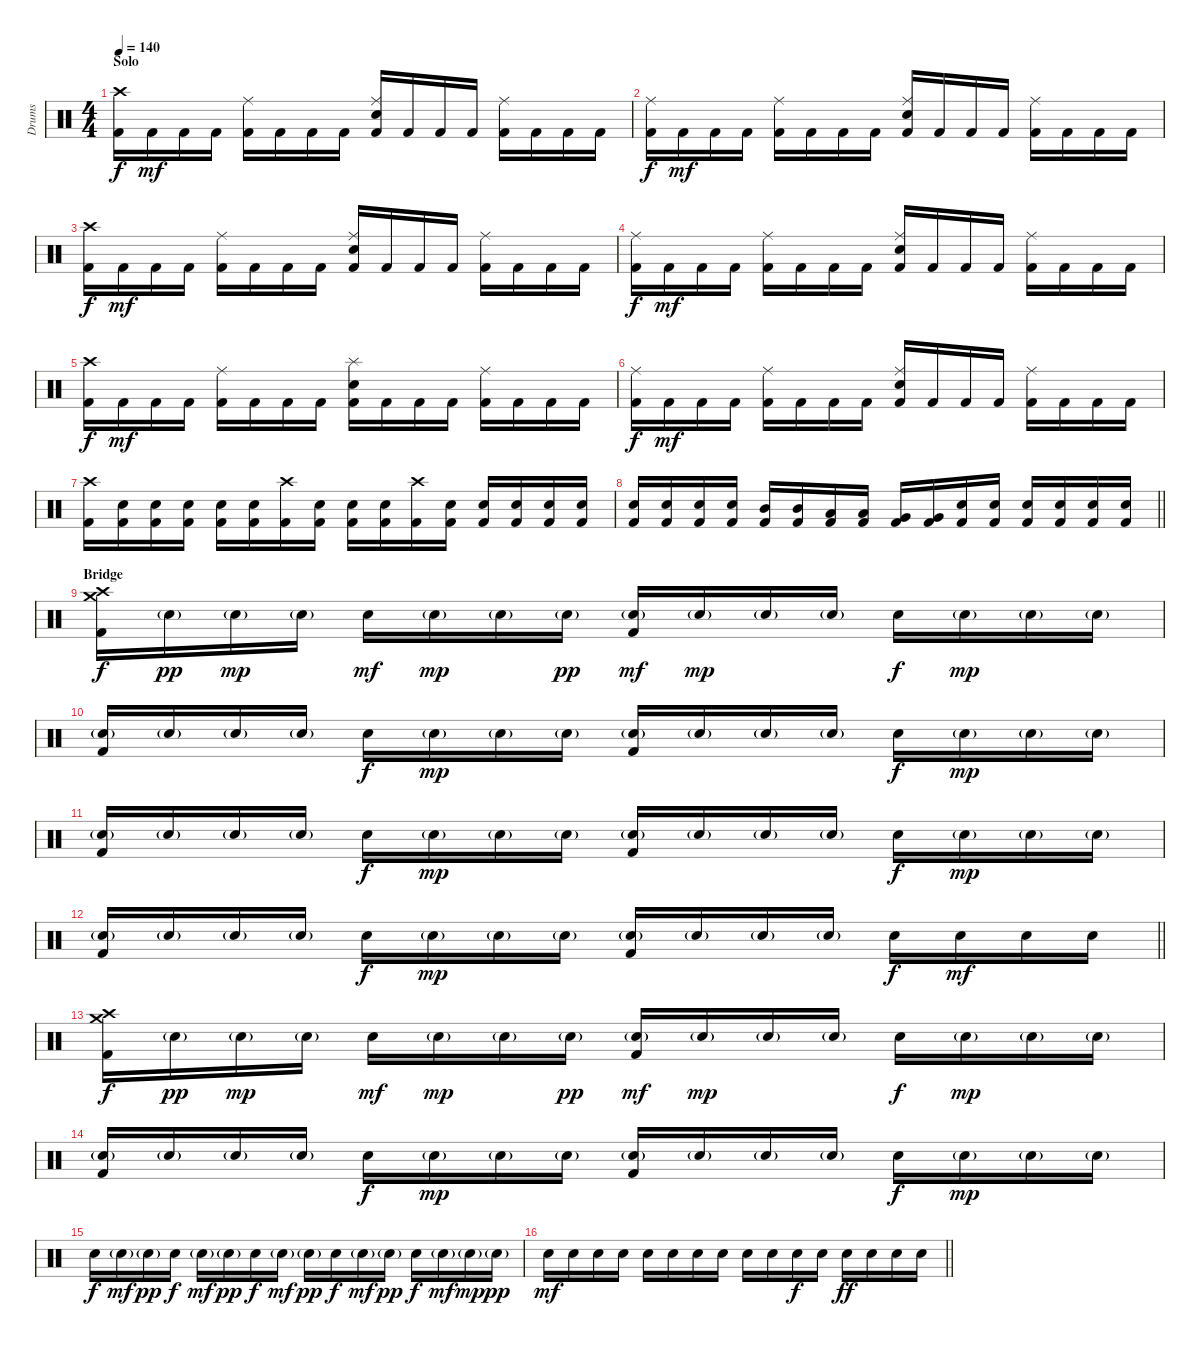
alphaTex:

\track ("Drums" "Drums") {instrument percussion}
\staff {score}
\articulation defaults
\ts (4 4)
\section ("" "Solo")
\tempo 140
\clef neutral
\ks c
("Crash high (hit)" "Kick (hit) 2").16{dy f} "Kick (hit) 2".16{dy mf} "Kick (hit) 2".16 "Kick (hit) 2".16 ("Ride (middle)" "Kick (hit) 2").16 "Kick (hit) 2".16 "Kick (hit) 2".16 "Kick (hit) 2".16 ("Ride (middle)" "Electric Snare (hit)" "Kick (hit) 2").16 "Kick (hit) 2".16 "Kick (hit) 2".16 "Kick (hit) 2".16 ("Ride (middle)" "Kick (hit) 2").16 "Kick (hit) 2".16 "Kick (hit) 2".16 "Kick (hit) 2".16 |
("Ride (middle)" "Kick (hit) 2").16{dy f} "Kick (hit) 2".16{dy mf} "Kick (hit) 2".16 "Kick (hit) 2".16 ("Ride (middle)" "Kick (hit) 2").16 "Kick (hit) 2".16 "Kick (hit) 2".16 "Kick (hit) 2".16 ("Ride (middle)" "Electric Snare (hit)" "Kick (hit) 2").16 "Kick (hit) 2".16 "Kick (hit) 2".16 "Kick (hit) 2".16 ("Ride (middle)" "Kick (hit) 2").16 "Kick (hit) 2".16 "Kick (hit) 2".16 "Kick (hit) 2".16 |
("Crash high (hit)" "Kick (hit) 2").16{dy f} "Kick (hit) 2".16{dy mf} "Kick (hit) 2".16 "Kick (hit) 2".16 ("Ride (middle)" "Kick (hit) 2").16 "Kick (hit) 2".16 "Kick (hit) 2".16 "Kick (hit) 2".16 ("Ride (middle)" "Electric Snare (hit)" "Kick (hit) 2").16 "Kick (hit) 2".16 "Kick (hit) 2".16 "Kick (hit) 2".16 ("Ride (middle)" "Kick (hit) 2").16 "Kick (hit) 2".16 "Kick (hit) 2".16 "Kick (hit) 2".16 |
("Ride (middle)" "Kick (hit) 2").16{dy f} "Kick (hit) 2".16{dy mf} "Kick (hit) 2".16 "Kick (hit) 2".16 ("Ride (middle)" "Kick (hit) 2").16 "Kick (hit) 2".16 "Kick (hit) 2".16 "Kick (hit) 2".16 ("Ride (middle)" "Electric Snare (hit)" "Kick (hit) 2").16 "Kick (hit) 2".16 "Kick (hit) 2".16 "Kick (hit) 2".16 ("Ride (middle)" "Kick (hit) 2").16 "Kick (hit) 2".16 "Kick (hit) 2".16 "Kick (hit) 2".16 |
("Crash high (hit)" "Kick (hit) 2").16{dy f} "Kick (hit) 2".16{dy mf} "Kick (hit) 2".16 "Kick (hit) 2".16 ("Ride (middle)" "Kick (hit) 2").16 "Kick (hit) 2".16 "Kick (hit) 2".16 "Kick (hit) 2".16 ("Splash (hit)" "Electric Snare (hit)" "Kick (hit) 2").16 "Kick (hit) 2".16 "Kick (hit) 2".16 "Kick (hit) 2".16 ("Ride (middle)" "Kick (hit) 2").16 "Kick (hit) 2".16 "Kick (hit) 2".16 "Kick (hit) 2".16 |
("Ride (middle)" "Kick (hit) 2").16{dy f} "Kick (hit) 2".16{dy mf} "Kick (hit) 2".16 "Kick (hit) 2".16 ("Ride (middle)" "Kick (hit) 2").16 "Kick (hit) 2".16 "Kick (hit) 2".16 "Kick (hit) 2".16 ("Ride (middle)" "Electric Snare (hit)" "Kick (hit) 2").16 "Kick (hit) 2".16 "Kick (hit) 2".16 "Kick (hit) 2".16 ("Ride (middle)" "Kick (hit) 2").16 "Kick (hit) 2".16 "Kick (hit) 2".16 "Kick (hit) 2".16 |
("Crash high (hit)" "Kick (hit) 2").16 ("Electric Snare (hit)" "Kick (hit) 2").16 ("Electric Snare (hit)" "Kick (hit) 2").16 ("Electric Snare (hit)" "Kick (hit) 2").16 ("Electric Snare (hit)" "Kick (hit) 2").16 ("Electric Snare (hit)" "Kick (hit) 2").16 ("Crash high (hit)" "Kick (hit) 2").16 ("Electric Snare (hit)" "Kick (hit) 2").16 ("Electric Snare (hit)" "Kick (hit) 2").16 ("Electric Snare (hit)" "Kick (hit) 2").16 ("Crash high (hit)" "Kick (hit) 2").16 ("Electric Snare (hit)" "Kick (hit) 2").16 ("Electric Snare (hit)" "Kick (hit) 2").16 ("Electric Snare (hit)" "Kick (hit) 2").16 ("Electric Snare (hit)" "Kick (hit) 2").16 ("Electric Snare (hit)" "Kick (hit) 2").16 |
\barLineRight lightlight
("Electric Snare (hit)" "Kick (hit) 2").16 ("Electric Snare (hit)" "Kick (hit) 2").16 ("Electric Snare (hit)" "Kick (hit) 2").16 ("Electric Snare (hit)" "Kick (hit) 2").16 ("Mid Tom (hit)" "Kick (hit) 2").16 ("Mid Tom (hit)" "Kick (hit) 2").16 ("Low Tom (hit)" "Kick (hit) 2").16 ("Low Tom (hit)" "Kick (hit) 2").16 ("Very Low Tom (hit)" "Kick (hit) 2").16 ("Very Low Tom (hit)" "Kick (hit) 2").16 ("Electric Snare (hit)" "Kick (hit) 2").16 ("Electric Snare (hit)" "Kick (hit) 2").16 ("Electric Snare (hit)" "Kick (hit) 2").16 ("Electric Snare (hit)" "Kick (hit) 2").16 ("Electric Snare (hit)" "Kick (hit) 2").16 ("Electric Snare (hit)" "Kick (hit) 2").16 |
\section ("" "Bridge")
("Crash high (hit)" "Crash medium (hit)" "Kick (hit) 2").16{dy f} "Electric Snare (hit)"{g}.16{dy pp} "Electric Snare (hit)"{g}.16{dy mp} "Electric Snare (hit)"{g}.16 "Electric Snare (hit)".16{dy mf} "Electric Snare (hit)"{g}.16{dy mp} "Electric Snare (hit)"{g}.16 "Electric Snare (hit)"{g}.16{dy pp} ("Electric Snare (hit)"{g} "Kick (hit) 2").16{dy mf} "Electric Snare (hit)"{g}.16{dy mp} "Electric Snare (hit)"{g}.16 "Electric Snare (hit)"{g}.16 "Electric Snare (hit)".16{dy f} "Electric Snare (hit)"{g}.16{dy mp} "Electric Snare (hit)"{g}.16 "Electric Snare (hit)"{g}.16 |
("Electric Snare (hit)"{g} "Kick (hit) 2").16 "Electric Snare (hit)"{g}.16 "Electric Snare (hit)"{g}.16 "Electric Snare (hit)"{g}.16 "Electric Snare (hit)".16{dy f} "Electric Snare (hit)"{g}.16{dy mp} "Electric Snare (hit)"{g}.16 "Electric Snare (hit)"{g}.16 ("Electric Snare (hit)"{g} "Kick (hit) 2").16 "Electric Snare (hit)"{g}.16 "Electric Snare (hit)"{g}.16 "Electric Snare (hit)"{g}.16 "Electric Snare (hit)".16{dy f} "Electric Snare (hit)"{g}.16{dy mp} "Electric Snare (hit)"{g}.16 "Electric Snare (hit)"{g}.16 |
("Electric Snare (hit)"{g} "Kick (hit) 2").16 "Electric Snare (hit)"{g}.16 "Electric Snare (hit)"{g}.16 "Electric Snare (hit)"{g}.16 "Electric Snare (hit)".16{dy f} "Electric Snare (hit)"{g}.16{dy mp} "Electric Snare (hit)"{g}.16 "Electric Snare (hit)"{g}.16 ("Electric Snare (hit)"{g} "Kick (hit) 2").16 "Electric Snare (hit)"{g}.16 "Electric Snare (hit)"{g}.16 "Electric Snare (hit)"{g}.16 "Electric Snare (hit)".16{dy f} "Electric Snare (hit)"{g}.16{dy mp} "Electric Snare (hit)"{g}.16 "Electric Snare (hit)"{g}.16 |
\barLineRight lightlight
("Electric Snare (hit)"{g} "Kick (hit) 2").16 "Electric Snare (hit)"{g}.16 "Electric Snare (hit)"{g}.16 "Electric Snare (hit)"{g}.16 "Electric Snare (hit)".16{dy f} "Electric Snare (hit)"{g}.16{dy mp} "Electric Snare (hit)"{g}.16 "Electric Snare (hit)"{g}.16 ("Electric Snare (hit)"{g} "Kick (hit) 2").16 "Electric Snare (hit)"{g}.16 "Electric Snare (hit)"{g}.16 "Electric Snare (hit)"{g}.16 "Electric Snare (hit)".16{dy f} "Electric Snare (hit)".16{dy mf} "Electric Snare (hit)".16 "Electric Snare (hit)".16 |
("Crash high (hit)" "Crash medium (hit)" "Kick (hit) 2").16{dy f} "Electric Snare (hit)"{g}.16{dy pp} "Electric Snare (hit)"{g}.16{dy mp} "Electric Snare (hit)"{g}.16 "Electric Snare (hit)".16{dy mf} "Electric Snare (hit)"{g}.16{dy mp} "Electric Snare (hit)"{g}.16 "Electric Snare (hit)"{g}.16{dy pp} ("Electric Snare (hit)"{g} "Kick (hit) 2").16{dy mf} "Electric Snare (hit)"{g}.16{dy mp} "Electric Snare (hit)"{g}.16 "Electric Snare (hit)"{g}.16 "Electric Snare (hit)".16{dy f} "Electric Snare (hit)"{g}.16{dy mp} "Electric Snare (hit)"{g}.16 "Electric Snare (hit)"{g}.16 |
("Electric Snare (hit)"{g} "Kick (hit) 2").16 "Electric Snare (hit)"{g}.16 "Electric Snare (hit)"{g}.16 "Electric Snare (hit)"{g}.16 "Electric Snare (hit)".16{dy f} "Electric Snare (hit)"{g}.16{dy mp} "Electric Snare (hit)"{g}.16 "Electric Snare (hit)"{g}.16 ("Electric Snare (hit)"{g} "Kick (hit) 2").16 "Electric Snare (hit)"{g}.16 "Electric Snare (hit)"{g}.16 "Electric Snare (hit)"{g}.16 "Electric Snare (hit)".16{dy f} "Electric Snare (hit)"{g}.16{dy mp} "Electric Snare (hit)"{g}.16 "Electric Snare (hit)"{g}.16 |
"Electric Snare (hit)".16{dy f} "Electric Snare (hit)"{g}.16{dy mf} "Electric Snare (hit)"{g}.16{dy pp} "Electric Snare (hit)".16{dy f} "Electric Snare (hit)"{g}.16{dy mf} "Electric Snare (hit)"{g}.16{dy pp} "Electric Snare (hit)".16{dy f} "Electric Snare (hit)"{g}.16{dy mf} "Electric Snare (hit)"{g}.16{dy pp} "Electric Snare (hit)".16{dy f} "Electric Snare (hit)"{g}.16{dy mf} "Electric Snare (hit)"{g}.16{dy pp} "Electric Snare (hit)".16{dy f} "Electric Snare (hit)"{g}.16{dy mf} "Electric Snare (hit)"{g}.16{dy mp} "Electric Snare (hit)"{g}.16{dy pp} |
\barLineRight lightlight "Electric Snare (hit)".16{dy mf} "Electric Snare (hit)".16 "Electric Snare (hit)".16 "Electric Snare (hit)".16 "Electric Snare (hit)".16 "Electric Snare (hit)".16 "Electric Snare (hit)".16 "Electric Snare (hit)".16 "Electric Snare (hit)".16 "Electric Snare (hit)".16 "Electric Snare (hit)".16{dy f} "Electric Snare (hit)".16 "Electric Snare (hit)".16{dy ff} "Electric Snare (hit)".16 "Electric Snare (hit)".16 "Electric Snare (hit)".16
